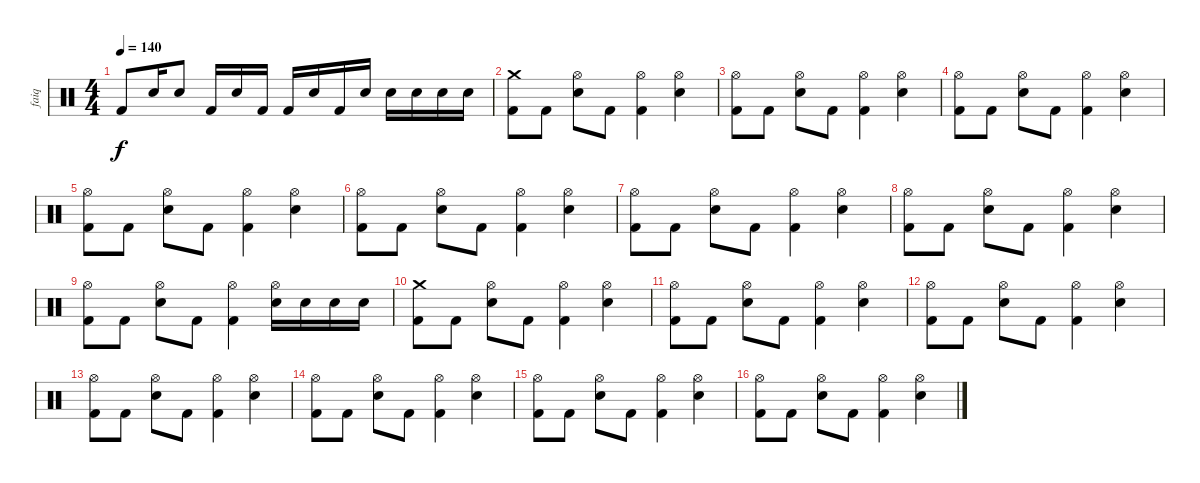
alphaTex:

\track ("faiq" "faiq") {instrument percussion}
\staff {score}
\articulation defaults
\ts (4 4)
\tempo 140
\clef neutral
\ks c "Kick (hit) 2".8{dy f} "Electric Snare (hit)".16 "Electric Snare (hit)".8 "Kick (hit) 2".16 "Electric Snare (hit)".16 "Kick (hit) 2".16 "Kick (hit) 2".16 "Electric Snare (hit)".16 "Kick (hit) 2".16 "Electric Snare (hit)".16 "Electric Snare (hit)".16 "Electric Snare (hit)".16 "Electric Snare (hit)".16 "Electric Snare (hit)".16
|
("Crash medium (hit)" "Kick (hit) 2").8 "Kick (hit) 2".8 ("Hi-Hat (open)" "Electric Snare (hit)").8 "Kick (hit) 2".8 ("Hi-Hat (open)" "Kick (hit) 2").4 ("Hi-Hat (open)" "Electric Snare (hit)").4 |
("Hi-Hat (open)" "Kick (hit) 2").8 "Kick (hit) 2".8 ("Hi-Hat (open)" "Electric Snare (hit)").8 "Kick (hit) 2".8 ("Hi-Hat (open)" "Kick (hit) 2").4 ("Hi-Hat (open)" "Electric Snare (hit)").4 |
("Hi-Hat (open)" "Kick (hit) 2").8 "Kick (hit) 2".8 ("Hi-Hat (open)" "Electric Snare (hit)").8 "Kick (hit) 2".8 ("Hi-Hat (open)" "Kick (hit) 2").4 ("Hi-Hat (open)" "Electric Snare (hit)").4 |
("Hi-Hat (open)" "Kick (hit) 2").8 "Kick (hit) 2".8 ("Hi-Hat (open)" "Electric Snare (hit)").8 "Kick (hit) 2".8 ("Hi-Hat (open)" "Kick (hit) 2").4 ("Hi-Hat (open)" "Electric Snare (hit)").4 |
("Hi-Hat (open)" "Kick (hit) 2").8 "Kick (hit) 2".8 ("Hi-Hat (open)" "Electric Snare (hit)").8 "Kick (hit) 2".8 ("Hi-Hat (open)" "Kick (hit) 2").4 ("Hi-Hat (open)" "Electric Snare (hit)").4 |
("Hi-Hat (open)" "Kick (hit) 2").8 "Kick (hit) 2".8 ("Hi-Hat (open)" "Electric Snare (hit)").8 "Kick (hit) 2".8 ("Hi-Hat (open)" "Kick (hit) 2").4 ("Hi-Hat (open)" "Electric Snare (hit)").4 |
("Hi-Hat (open)" "Kick (hit) 2").8 "Kick (hit) 2".8 ("Hi-Hat (open)" "Electric Snare (hit)").8 "Kick (hit) 2".8 ("Hi-Hat (open)" "Kick (hit) 2").4 ("Hi-Hat (open)" "Electric Snare (hit)").4 |
("Hi-Hat (open)" "Kick (hit) 2").8 "Kick (hit) 2".8 ("Hi-Hat (open)" "Electric Snare (hit)").8 "Kick (hit) 2".8 ("Hi-Hat (open)" "Kick (hit) 2").4 ("Hi-Hat (open)" "Electric Snare (hit)").16 "Electric Snare (hit)".16 "Electric Snare (hit)".16 "Electric Snare (hit)".16 |
("Crash medium (hit)" "Kick (hit) 2").8 "Kick (hit) 2".8 ("Hi-Hat (open)" "Electric Snare (hit)").8 "Kick (hit) 2".8 ("Hi-Hat (open)" "Kick (hit) 2").4 ("Hi-Hat (open)" "Electric Snare (hit)").4 |
("Hi-Hat (open)" "Kick (hit) 2").8 "Kick (hit) 2".8 ("Hi-Hat (open)" "Electric Snare (hit)").8 "Kick (hit) 2".8 ("Hi-Hat (open)" "Kick (hit) 2").4 ("Hi-Hat (open)" "Electric Snare (hit)").4 |
("Hi-Hat (open)" "Kick (hit) 2").8 "Kick (hit) 2".8 ("Hi-Hat (open)" "Electric Snare (hit)").8 "Kick (hit) 2".8 ("Hi-Hat (open)" "Kick (hit) 2").4 ("Hi-Hat (open)" "Electric Snare (hit)").4 |
("Hi-Hat (open)" "Kick (hit) 2").8 "Kick (hit) 2".8 ("Hi-Hat (open)" "Electric Snare (hit)").8 "Kick (hit) 2".8 ("Hi-Hat (open)" "Kick (hit) 2").4 ("Hi-Hat (open)" "Electric Snare (hit)").4 |
("Hi-Hat (open)" "Kick (hit) 2").8 "Kick (hit) 2".8 ("Hi-Hat (open)" "Electric Snare (hit)").8 "Kick (hit) 2".8 ("Hi-Hat (open)" "Kick (hit) 2").4 ("Hi-Hat (open)" "Electric Snare (hit)").4 |
("Hi-Hat (open)" "Kick (hit) 2").8 "Kick (hit) 2".8 ("Hi-Hat (open)" "Electric Snare (hit)").8 "Kick (hit) 2".8 ("Hi-Hat (open)" "Kick (hit) 2").4 ("Hi-Hat (open)" "Electric Snare (hit)").4 |
("Hi-Hat (open)" "Kick (hit) 2").8 "Kick (hit) 2".8 ("Hi-Hat (open)" "Electric Snare (hit)").8 "Kick (hit) 2".8 ("Hi-Hat (open)" "Kick (hit) 2").4 ("Hi-Hat (open)" "Electric Snare (hit)").4
